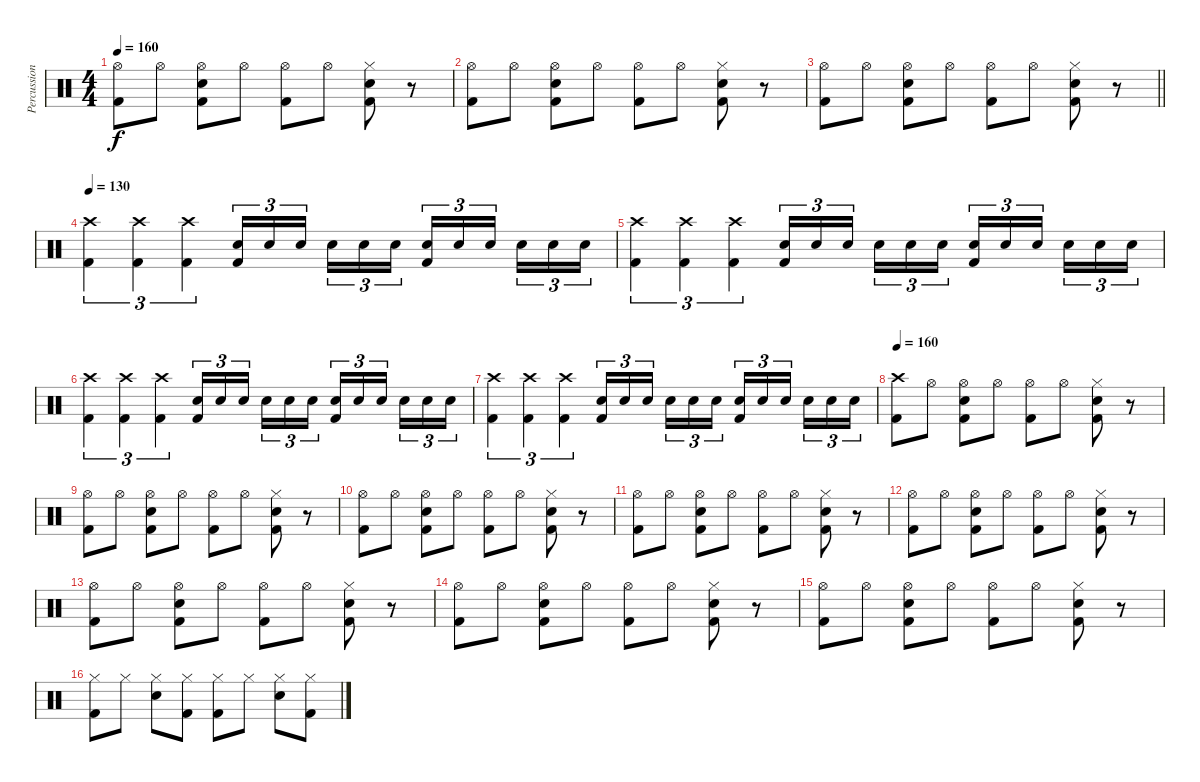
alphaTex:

\track ("Percussion" "Percussion") {instrument percussion}
\staff {score}
\articulation defaults
\ts (4 4)
\tempo 160
\clef neutral
\ks c
("Hi-Hat (open)" "Kick (hit) 2").8{dy f} "Hi-Hat (open)".8 ("Hi-Hat (open)" "Electric Snare (hit)" "Kick (hit) 2").8 "Hi-Hat (open)".8 ("Hi-Hat (open)" "Kick (hit) 2").8 "Hi-Hat (open)".8 ("Hi-Hat (closed)" "Electric Snare (hit)" "Kick (hit) 2").8 r.8 |
("Hi-Hat (open)" "Kick (hit) 2").8 "Hi-Hat (open)".8 ("Hi-Hat (open)" "Electric Snare (hit)" "Kick (hit) 2").8 "Hi-Hat (open)".8 ("Hi-Hat (open)" "Kick (hit) 2").8 "Hi-Hat (open)".8 ("Hi-Hat (closed)" "Electric Snare (hit)" "Kick (hit) 2").8 r.8 |
\barLineRight lightlight
("Hi-Hat (open)" "Kick (hit) 2").8 "Hi-Hat (open)".8 ("Hi-Hat (open)" "Electric Snare (hit)" "Kick (hit) 2").8 "Hi-Hat (open)".8 ("Hi-Hat (open)" "Kick (hit) 2").8 "Hi-Hat (open)".8 ("Hi-Hat (closed)" "Electric Snare (hit)" "Kick (hit) 2").8 r.8 |
\tempo 130
("Crash high (hit)" "Kick (hit) 2").4{tu (3 2)} ("Crash high (hit)" "Kick (hit) 2").4{tu (3 2)} ("Crash high (hit)" "Kick (hit) 2").4{tu (3 2)} ("Electric Snare (hit)" "Kick (hit) 2").16{tu (3 2)} "Electric Snare (hit)".16{tu (3 2)} "Electric Snare (hit)".16{tu (3 2) beam splitsecondary} "Electric Snare (hit)".16{tu (3 2)} "Electric Snare (hit)".16{tu (3 2)} "Electric Snare (hit)".16{tu (3 2)} ("Electric Snare (hit)" "Kick (hit) 2").16{tu (3 2)} "Electric Snare (hit)".16{tu (3 2)} "Electric Snare (hit)".16{tu (3 2) beam splitsecondary} "Electric Snare (hit)".16{tu (3 2)} "Electric Snare (hit)".16{tu (3 2)} "Electric Snare (hit)".16{tu (3 2)} |
("Crash high (hit)" "Kick (hit) 2").4{tu (3 2)} ("Crash high (hit)" "Kick (hit) 2").4{tu (3 2)} ("Crash high (hit)" "Kick (hit) 2").4{tu (3 2)} ("Electric Snare (hit)" "Kick (hit) 2").16{tu (3 2)} "Electric Snare (hit)".16{tu (3 2)} "Electric Snare (hit)".16{tu (3 2) beam splitsecondary} "Electric Snare (hit)".16{tu (3 2)} "Electric Snare (hit)".16{tu (3 2)} "Electric Snare (hit)".16{tu (3 2)} ("Electric Snare (hit)" "Kick (hit) 2").16{tu (3 2)} "Electric Snare (hit)".16{tu (3 2)} "Electric Snare (hit)".16{tu (3 2) beam splitsecondary} "Electric Snare (hit)".16{tu (3 2)} "Electric Snare (hit)".16{tu (3 2)} "Electric Snare (hit)".16{tu (3 2)} |
("Crash high (hit)" "Kick (hit) 2").4{tu (3 2)} ("Crash high (hit)" "Kick (hit) 2").4{tu (3 2)} ("Crash high (hit)" "Kick (hit) 2").4{tu (3 2)} ("Electric Snare (hit)" "Kick (hit) 2").16{tu (3 2)} "Electric Snare (hit)".16{tu (3 2)} "Electric Snare (hit)".16{tu (3 2) beam splitsecondary} "Electric Snare (hit)".16{tu (3 2)} "Electric Snare (hit)".16{tu (3 2)} "Electric Snare (hit)".16{tu (3 2)} ("Electric Snare (hit)" "Kick (hit) 2").16{tu (3 2)} "Electric Snare (hit)".16{tu (3 2)} "Electric Snare (hit)".16{tu (3 2) beam splitsecondary} "Electric Snare (hit)".16{tu (3 2)} "Electric Snare (hit)".16{tu (3 2)} "Electric Snare (hit)".16{tu (3 2)} |
("Crash high (hit)" "Kick (hit) 2").4{tu (3 2)} ("Crash high (hit)" "Kick (hit) 2").4{tu (3 2)} ("Crash high (hit)" "Kick (hit) 2").4{tu (3 2)} ("Electric Snare (hit)" "Kick (hit) 2").16{tu (3 2)} "Electric Snare (hit)".16{tu (3 2)} "Electric Snare (hit)".16{tu (3 2) beam splitsecondary} "Electric Snare (hit)".16{tu (3 2)} "Electric Snare (hit)".16{tu (3 2)} "Electric Snare (hit)".16{tu (3 2)} ("Electric Snare (hit)" "Kick (hit) 2").16{tu (3 2)} "Electric Snare (hit)".16{tu (3 2)} "Electric Snare (hit)".16{tu (3 2) beam splitsecondary} "Electric Snare (hit)".16{tu (3 2)} "Electric Snare (hit)".16{tu (3 2)} "Electric Snare (hit)".16{tu (3 2)} |
\tempo 160
("Crash high (hit)" "Kick (hit) 2").8 "Hi-Hat (open)".8 ("Hi-Hat (open)" "Electric Snare (hit)" "Kick (hit) 2").8 "Hi-Hat (open)".8 ("Hi-Hat (open)" "Kick (hit) 2").8 "Hi-Hat (open)".8 ("Hi-Hat (closed)" "Electric Snare (hit)" "Kick (hit) 2").8 r.8 |
("Hi-Hat (open)" "Kick (hit) 2").8 "Hi-Hat (open)".8 ("Hi-Hat (open)" "Electric Snare (hit)" "Kick (hit) 2").8 "Hi-Hat (open)".8 ("Hi-Hat (open)" "Kick (hit) 2").8 "Hi-Hat (open)".8 ("Hi-Hat (closed)" "Electric Snare (hit)" "Kick (hit) 2").8 r.8 |
("Hi-Hat (open)" "Kick (hit) 2").8 "Hi-Hat (open)".8 ("Hi-Hat (open)" "Electric Snare (hit)" "Kick (hit) 2").8 "Hi-Hat (open)".8 ("Hi-Hat (open)" "Kick (hit) 2").8 "Hi-Hat (open)".8 ("Hi-Hat (closed)" "Electric Snare (hit)" "Kick (hit) 2").8 r.8 |
("Hi-Hat (open)" "Kick (hit) 2").8 "Hi-Hat (open)".8 ("Hi-Hat (open)" "Electric Snare (hit)" "Kick (hit) 2").8 "Hi-Hat (open)".8 ("Hi-Hat (open)" "Kick (hit) 2").8 "Hi-Hat (open)".8 ("Hi-Hat (closed)" "Electric Snare (hit)" "Kick (hit) 2").8 r.8 |
("Hi-Hat (open)" "Kick (hit) 2").8 "Hi-Hat (open)".8 ("Hi-Hat (open)" "Electric Snare (hit)" "Kick (hit) 2").8 "Hi-Hat (open)".8 ("Hi-Hat (open)" "Kick (hit) 2").8 "Hi-Hat (open)".8 ("Hi-Hat (closed)" "Electric Snare (hit)" "Kick (hit) 2").8 r.8 |
("Hi-Hat (open)" "Kick (hit) 2").8 "Hi-Hat (open)".8 ("Hi-Hat (open)" "Electric Snare (hit)" "Kick (hit) 2").8 "Hi-Hat (open)".8 ("Hi-Hat (open)" "Kick (hit) 2").8 "Hi-Hat (open)".8 ("Hi-Hat (closed)" "Electric Snare (hit)" "Kick (hit) 2").8 r.8 |
("Hi-Hat (open)" "Kick (hit) 2").8 "Hi-Hat (open)".8 ("Hi-Hat (open)" "Electric Snare (hit)" "Kick (hit) 2").8 "Hi-Hat (open)".8 ("Hi-Hat (open)" "Kick (hit) 2").8 "Hi-Hat (open)".8 ("Hi-Hat (closed)" "Electric Snare (hit)" "Kick (hit) 2").8 r.8 |
("Hi-Hat (open)" "Kick (hit) 2").8 "Hi-Hat (open)".8 ("Hi-Hat (open)" "Electric Snare (hit)" "Kick (hit) 2").8 "Hi-Hat (open)".8 ("Hi-Hat (open)" "Kick (hit) 2").8 "Hi-Hat (open)".8 ("Hi-Hat (closed)" "Electric Snare (hit)" "Kick (hit) 2").8 r.8 |
("Hi-Hat (closed)" "Kick (hit) 2").8 "Hi-Hat (closed)".8 ("Hi-Hat (closed)" "Electric Snare (hit)").8 ("Hi-Hat (closed)" "Kick (hit) 2").8 ("Hi-Hat (closed)" "Kick (hit) 2").8 "Hi-Hat (closed)".8 ("Hi-Hat (closed)" "Electric Snare (hit)").8 ("Hi-Hat (closed)" "Kick (hit) 2").8
